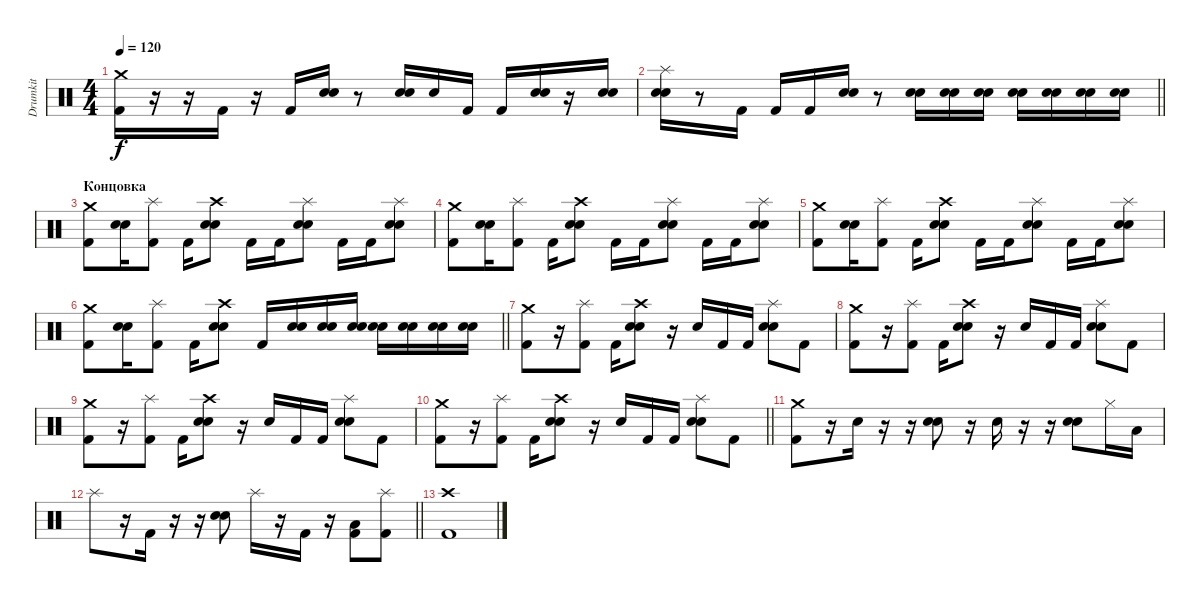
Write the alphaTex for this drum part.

\track ("Drumkit" "Drumkit") {instrument percussion}
\staff {score}
\articulation defaults
\ts (4 4)
\tempo 120
\clef neutral
\ks c
("Crash medium (hit)" "Kick (hit) 2").16{dy f} r.16 r.16 "Kick (hit) 2".16 r.16 "Kick (hit) 2".16 ("Electric Snare (hit)" "Snare (hit) 2").16 r.8 ("Electric Snare (hit)" "Snare (hit) 2").16 "Electric Snare (hit)".16 "Kick (hit) 2".16 "Kick (hit) 2".16 ("Electric Snare (hit)" "Snare (hit) 2").16 r.16 ("Electric Snare (hit)" "Snare (hit) 2").16 |
\barLineRight lightlight
("Splash (hit)" "Electric Snare (hit)" "Snare (hit) 2").16 r.8 "Kick (hit) 2".16 "Kick (hit) 2".16 "Kick (hit) 2".16 ("Electric Snare (hit)" "Snare (hit) 2").16 r.8 ("Electric Snare (hit)" "Snare (hit) 2").16 ("Electric Snare (hit)" "Snare (hit) 2").16 ("Electric Snare (hit)" "Snare (hit) 2").16 ("Electric Snare (hit)" "Snare (hit) 2").16 ("Electric Snare (hit)" "Snare (hit) 2").16 ("Electric Snare (hit)" "Snare (hit) 2").16 ("Electric Snare (hit)" "Snare (hit) 2").16 |
\section ("" "Концовка")
("Crash medium (hit)" "Kick (hit) 2").8 ("Electric Snare (hit)" "Snare (hit) 2").16 ("Splash (hit)" "Kick (hit) 2").8 "Kick (hit) 2".16 ("Crash high (hit)" "Electric Snare (hit)" "Snare (hit) 2").8 "Kick (hit) 2".16 "Kick (hit) 2".16 ("Splash (hit)" "Electric Snare (hit)" "Snare (hit) 2").8 "Kick (hit) 2".16 "Kick (hit) 2".16 ("Splash (hit)" "Electric Snare (hit)" "Snare (hit) 2").8 |
("Crash medium (hit)" "Kick (hit) 2").8 ("Electric Snare (hit)" "Snare (hit) 2").16 ("Splash (hit)" "Kick (hit) 2").8 "Kick (hit) 2".16 ("Crash high (hit)" "Electric Snare (hit)" "Snare (hit) 2").8 "Kick (hit) 2".16 "Kick (hit) 2".16 ("Splash (hit)" "Electric Snare (hit)" "Snare (hit) 2").8 "Kick (hit) 2".16 "Kick (hit) 2".16 ("Splash (hit)" "Electric Snare (hit)" "Snare (hit) 2").8 |
("Crash medium (hit)" "Kick (hit) 2").8 ("Electric Snare (hit)" "Snare (hit) 2").16 ("Splash (hit)" "Kick (hit) 2").8 "Kick (hit) 2".16 ("Crash high (hit)" "Electric Snare (hit)" "Snare (hit) 2").8 "Kick (hit) 2".16 "Kick (hit) 2".16 ("Splash (hit)" "Electric Snare (hit)" "Snare (hit) 2").8 "Kick (hit) 2".16 "Kick (hit) 2".16 ("Splash (hit)" "Electric Snare (hit)" "Snare (hit) 2").8 |
\barLineRight lightlight
("Crash medium (hit)" "Kick (hit) 2").8 ("Electric Snare (hit)" "Snare (hit) 2").16 ("Splash (hit)" "Kick (hit) 2").8 "Kick (hit) 2".16 ("Crash high (hit)" "Electric Snare (hit)" "Snare (hit) 2").8 "Kick (hit) 2".16 ("Electric Snare (hit)" "Snare (hit) 2").16 ("Electric Snare (hit)" "Snare (hit) 2").16 ("Electric Snare (hit)" "Snare (hit) 2").16 ("Electric Snare (hit)" "Snare (hit) 2").16 ("Electric Snare (hit)" "Snare (hit) 2").16 ("Electric Snare (hit)" "Snare (hit) 2").16 ("Electric Snare (hit)" "Snare (hit) 2").16 |
("Crash medium (hit)" "Kick (hit) 2").8 r.16 ("Splash (hit)" "Kick (hit) 2").8 "Kick (hit) 2".16 ("Crash high (hit)" "Electric Snare (hit)" "Snare (hit) 2").8 r.16 "Electric Snare (hit)".16 "Kick (hit) 2".16 "Kick (hit) 2".16 ("Splash (hit)" "Electric Snare (hit)" "Snare (hit) 2").8 "Kick (hit) 2".8 |
("Crash medium (hit)" "Kick (hit) 2").8 r.16 ("Splash (hit)" "Kick (hit) 2").8 "Kick (hit) 2".16 ("Crash high (hit)" "Electric Snare (hit)" "Snare (hit) 2").8 r.16 "Electric Snare (hit)".16 "Kick (hit) 2".16 "Kick (hit) 2".16 ("Splash (hit)" "Electric Snare (hit)" "Snare (hit) 2").8 "Kick (hit) 2".8 |
("Crash medium (hit)" "Kick (hit) 2").8 r.16 ("Splash (hit)" "Kick (hit) 2").8 "Kick (hit) 2".16 ("Crash high (hit)" "Electric Snare (hit)" "Snare (hit) 2").8 r.16 "Electric Snare (hit)".16 "Kick (hit) 2".16 "Kick (hit) 2".16 ("Splash (hit)" "Electric Snare (hit)" "Snare (hit) 2").8 "Kick (hit) 2".8 |
\barLineRight lightlight
("Crash medium (hit)" "Kick (hit) 2").8 r.16 ("Splash (hit)" "Kick (hit) 2").8 "Kick (hit) 2".16 ("Crash high (hit)" "Electric Snare (hit)" "Snare (hit) 2").8 r.16 "Electric Snare (hit)".16 "Kick (hit) 2".16 "Kick (hit) 2".16 ("Splash (hit)" "Electric Snare (hit)" "Snare (hit) 2").8 "Kick (hit) 2".8 |
("Crash medium (hit)" "Kick (hit) 2").8 r.16 "Electric Snare (hit)".16 r.16 r.16 ("Electric Snare (hit)" "Snare (hit) 2").8 r.16 "Electric Snare (hit)".16 r.16 r.16 ("Electric Snare (hit)" "Snare (hit) 2").8 "Hi-Hat (closed)".16 "Low Tom (hit)".16 |
\barLineRight lightlight "Splash (hit)".8
r.16 "Kick (hit) 2".16 r.16 r.16 ("Electric Snare (hit)" "Snare (hit) 2").8 "Splash (hit)".16 r.16 "Kick (hit) 2".16 r.16 ("Low Tom (hit)" "Kick (hit) 2").8 ("Splash (hit)" "Kick (hit) 2").8 |
("Crash high (hit)" "Kick (hit) 2").1
